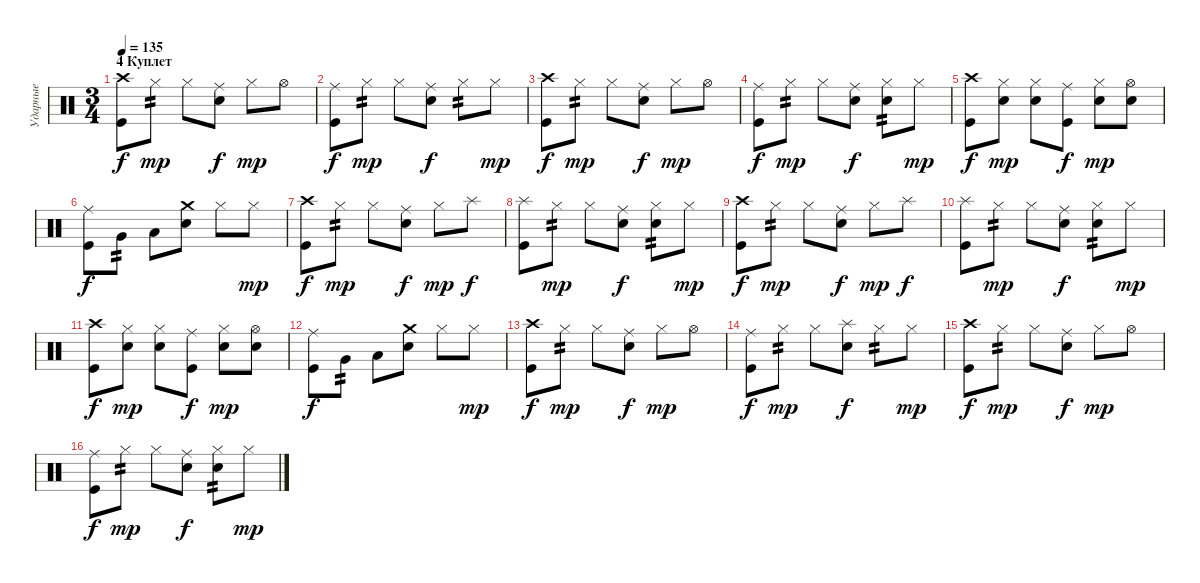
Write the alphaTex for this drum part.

\track ("Ударные" "Ударные") {instrument percussion}
\staff {score}
\articulation defaults
\ts (3 4)
\section ("" "4 Куплет")
\tempo 135
\clef neutral
\ks c
("Crash high (hit)" "Kick (hit)").8{dy f} "Hi-Hat (closed)".8{tp 2 dy mp} "Hi-Hat (closed)".8 ("Ride (middle)" "Snare (hit) 2").8{dy f} "Hi-Hat (closed)".8{dy mp} "Hi-Hat (open)".8 |
("Ride (middle)" "Kick (hit)").8{dy f} "Hi-Hat (closed)".8{tp 2 dy mp} "Hi-Hat (closed)".8 ("Ride (middle)" "Snare (hit) 2").8{dy f} "Hi-Hat (closed)".8{tp 2} "Hi-Hat (closed)".8{dy mp} |
("Crash high (hit)" "Kick (hit)").8{dy f} "Hi-Hat (closed)".8{tp 2 dy mp} "Hi-Hat (closed)".8 ("Ride (middle)" "Snare (hit) 2").8{dy f} "Hi-Hat (closed)".8{dy mp} "Hi-Hat (open)".8 |
("Ride (middle)" "Kick (hit)").8{dy f} "Hi-Hat (closed)".8{tp 2 dy mp} "Hi-Hat (closed)".8 ("Ride (middle)" "Snare (hit) 2").8{dy f} ("Hi-Hat (closed)" "Snare (hit) 2").8{tp 2} "Hi-Hat (closed)".8{dy mp} |
("Crash high (hit)" "Kick (hit)").8{dy f} ("Hi-Hat (closed)" "Snare (hit) 2").8{dy mp} ("Hi-Hat (closed)" "Snare (hit) 2").8 ("Ride (middle)" "Kick (hit)").8{dy f} ("Hi-Hat (closed)" "Snare (hit) 2").8{dy mp} ("Hi-Hat (open)" "Snare (hit) 2").8 |
("Ride (middle)" "Kick (hit)").8{dy f} "Very Low Tom (hit)".8{tp 2} "Low Floor Tom (hit)".8 ("Crash medium (hit)" "Snare (hit) 2").8 "Hi-Hat (closed)".8 "Hi-Hat (closed)".8{dy mp} |
("Crash high (hit)" "Kick (hit)").8{dy f} "Hi-Hat (closed)".8{tp 2 dy mp} "Hi-Hat (closed)".8 ("Ride (middle)" "Snare (hit) 2").8{dy f} "Hi-Hat (closed)".8{dy mp} "Splash (hit)".8{dy f} |
("Splash (hit)" "Kick (hit)").8 "Hi-Hat (closed)".8{tp 2 dy mp} "Hi-Hat (closed)".8 ("Ride (middle)" "Snare (hit) 2").8{dy f} ("Hi-Hat (closed)" "Snare (hit) 2").8{tp 2} "Hi-Hat (closed)".8{dy mp} |
("Crash high (hit)" "Kick (hit)").8{dy f} "Hi-Hat (closed)".8{tp 2 dy mp} "Hi-Hat (closed)".8 ("Ride (middle)" "Snare (hit) 2").8{dy f} "Hi-Hat (closed)".8{dy mp} "Splash (hit)".8{dy f} |
("Splash (hit)" "Kick (hit)").8 "Hi-Hat (closed)".8{tp 2 dy mp} "Hi-Hat (closed)".8 ("Ride (middle)" "Snare (hit) 2").8{dy f} ("Hi-Hat (closed)" "Snare (hit) 2").8{tp 2} "Hi-Hat (closed)".8{dy mp} |
("Crash high (hit)" "Kick (hit)").8{dy f} ("Hi-Hat (closed)" "Snare (hit) 2").8{dy mp} ("Hi-Hat (closed)" "Snare (hit) 2").8 ("Ride (middle)" "Kick (hit)").8{dy f} ("Hi-Hat (closed)" "Snare (hit) 2").8{dy mp} ("Hi-Hat (open)" "Snare (hit) 2").8 |
("Ride (middle)" "Kick (hit)").8{dy f} "Very Low Tom (hit)".8{tp 2} "Low Floor Tom (hit)".8 ("Crash medium (hit)" "Snare (hit) 2").8 "Hi-Hat (closed)".8 "Hi-Hat (closed)".8{dy mp} |
("Crash high (hit)" "Kick (hit)").8{dy f} "Hi-Hat (closed)".8{tp 2 dy mp} "Hi-Hat (closed)".8 ("Ride (middle)" "Snare (hit) 2").8{dy f} "Hi-Hat (closed)".8{dy mp} "Hi-Hat (open)".8 |
("Ride (middle)" "Kick (hit)").8{dy f} "Hi-Hat (closed)".8{tp 2 dy mp} "Hi-Hat (closed)".8 ("Splash (hit)" "Snare (hit) 2").8{dy f} "Hi-Hat (closed)".8{tp 2} "Hi-Hat (closed)".8{dy mp} |
("Crash high (hit)" "Kick (hit)").8{dy f} "Hi-Hat (closed)".8{tp 2 dy mp} "Hi-Hat (closed)".8 ("Ride (middle)" "Snare (hit) 2").8{dy f} "Hi-Hat (closed)".8{dy mp} "Hi-Hat (open)".8 |
("Ride (middle)" "Kick (hit)").8{dy f} "Hi-Hat (closed)".8{tp 2 dy mp} "Hi-Hat (closed)".8 ("Ride (middle)" "Snare (hit) 2").8{dy f} ("Hi-Hat (closed)" "Snare (hit) 2").8{tp 2} "Hi-Hat (closed)".8{dy mp}
